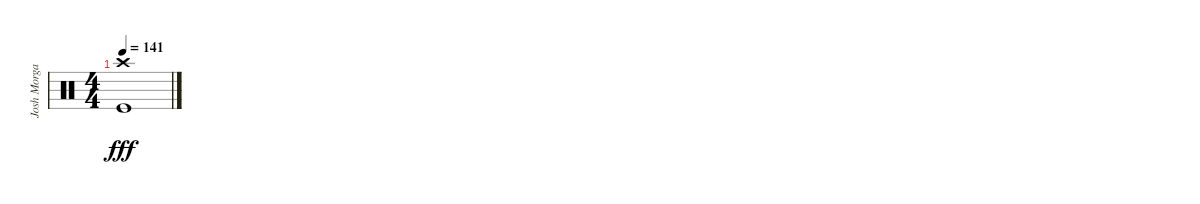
\track ("Josh Morgan" "Josh Morga") {instrument percussion}
\staff {score}
\articulation defaults
\ts (4 4)
\tempo 141
\clef neutral
\ks c
("Crash high (hit)" "Kick (hit)").1{dy fff}
